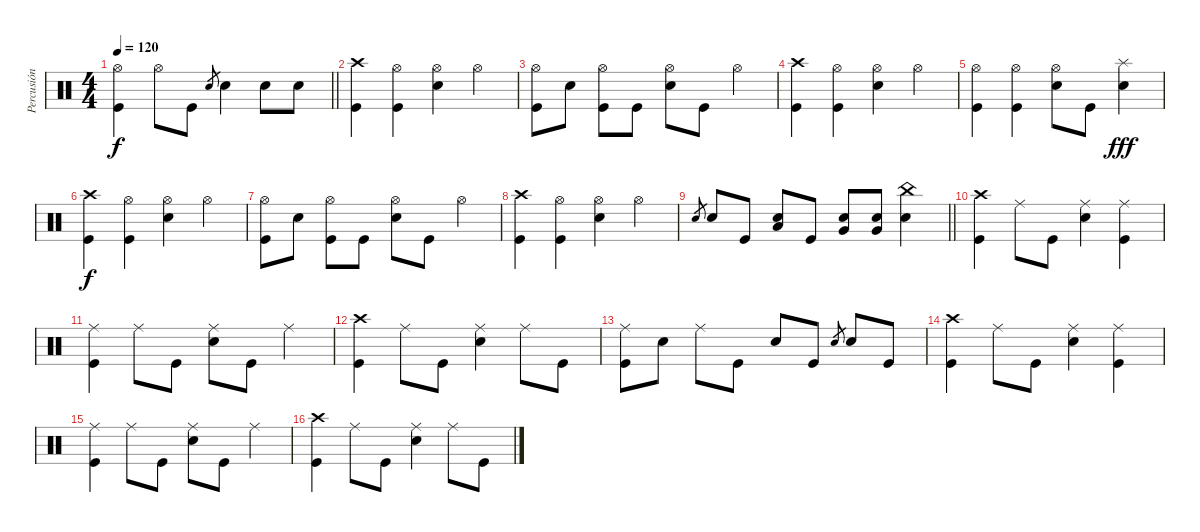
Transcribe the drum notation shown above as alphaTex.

\track ("Percusión" "Percusión") {instrument percussion}
\staff {score}
\articulation defaults
\ts (4 4)
\tempo 120
\clef neutral
\barLineRight lightlight
\ks c
("Hi-Hat (open)" "Kick (hit)").4{dy f} "Hi-Hat (open)".8 "Kick (hit)".8 "Electric Snare (hit)".8{gr} "Electric Snare (hit)".4 "Electric Snare (hit)".8 "Electric Snare (hit)".8 |
("Crash high (hit)" "Kick (hit)").4 ("Hi-Hat (open)" "Kick (hit)").4 ("Hi-Hat (open)" "Electric Snare (hit)").4 "Hi-Hat (open)".4 |
("Hi-Hat (open)" "Kick (hit)").8 "Electric Snare (hit)".8 ("Hi-Hat (open)" "Kick (hit)").8 "Kick (hit)".8 ("Hi-Hat (open)" "Electric Snare (hit)").8 "Kick (hit)".8 "Hi-Hat (open)".4 |
("Crash high (hit)" "Kick (hit)").4 ("Hi-Hat (open)" "Kick (hit)").4 ("Hi-Hat (open)" "Electric Snare (hit)").4 "Hi-Hat (open)".4 |
("Hi-Hat (open)" "Kick (hit)").4 ("Hi-Hat (open)" "Kick (hit)").4 ("Hi-Hat (open)" "Electric Snare (hit)").8 "Kick (hit)".8 ("Splash (hit)" "Electric Snare (hit)").4{dy fff} |
("Crash high (hit)" "Kick (hit)").4{dy f} ("Hi-Hat (open)" "Kick (hit)").4 ("Hi-Hat (open)" "Electric Snare (hit)").4 "Hi-Hat (open)".4 |
("Hi-Hat (open)" "Kick (hit)").8 "Electric Snare (hit)".8 ("Hi-Hat (open)" "Kick (hit)").8 "Kick (hit)".8 ("Hi-Hat (open)" "Electric Snare (hit)").8 "Kick (hit)".8 "Hi-Hat (open)".4 |
("Crash high (hit)" "Kick (hit)").4 ("Hi-Hat (open)" "Kick (hit)").4 ("Hi-Hat (open)" "Electric Snare (hit)").4 "Hi-Hat (open)".4 |
\barLineRight lightlight "Electric Snare (hit)".8{gr} "Electric Snare (hit)".8 "Kick (hit)".8
("Low Tom (hit)" "Electric Snare (hit)").8 "Kick (hit)".8 ("Very Low Tom (hit)" "Electric Snare (hit)").8 ("Very Low Tom (hit)" "Electric Snare (hit)").8 ("China (hit)" "Electric Snare (hit)").4 |
("Crash high (hit)" "Kick (hit)").4 "Ride (middle)".8 "Kick (hit)".8 ("Ride (middle)" "Electric Snare (hit)").4 ("Ride (middle)" "Kick (hit)").4 |
("Ride (middle)" "Kick (hit)").4 "Ride (middle)".8 "Kick (hit)".8 ("Ride (middle)" "Electric Snare (hit)").8 "Kick (hit)".8 "Ride (middle)".4 |
("Crash high (hit)" "Kick (hit)").4 "Ride (middle)".8 "Kick (hit)".8 ("Ride (middle)" "Electric Snare (hit)").4 "Ride (middle)".8 "Kick (hit)".8 |
("Ride (middle)" "Kick (hit)").8 "Electric Snare (hit)".8 "Ride (middle)".8 "Kick (hit)".8 "Electric Snare (hit)".8 "Kick (hit)".8 "Electric Snare (hit)".8{gr} "Electric Snare (hit)".8 "Kick (hit)".8 |
("Crash high (hit)" "Kick (hit)").4 "Ride (middle)".8 "Kick (hit)".8 ("Ride (middle)" "Electric Snare (hit)").4 ("Ride (middle)" "Kick (hit)").4 |
("Ride (middle)" "Kick (hit)").4 "Ride (middle)".8 "Kick (hit)".8 ("Ride (middle)" "Electric Snare (hit)").8 "Kick (hit)".8 "Ride (middle)".4 |
("Crash high (hit)" "Kick (hit)").4 "Ride (middle)".8 "Kick (hit)".8 ("Ride (middle)" "Electric Snare (hit)").4 "Ride (middle)".8 "Kick (hit)".8
